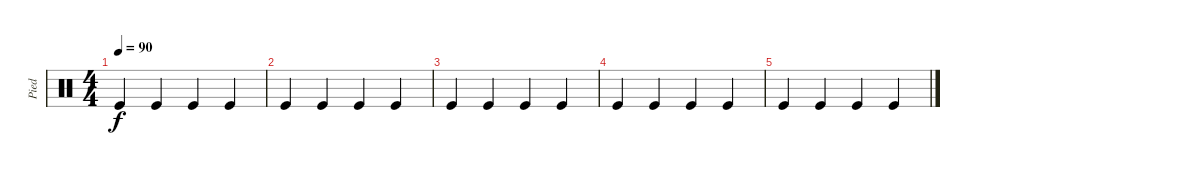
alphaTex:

\track ("Pied" "Pied") {instrument percussion}
\staff {score}
\articulation defaults
\ts (4 4)
\tempo 90
\clef neutral
\ks c "Kick (hit)".4{dy f} "Kick (hit)".4 "Kick (hit)".4 "Kick (hit)".4
|
"Kick (hit)".4 "Kick (hit)".4 "Kick (hit)".4 "Kick (hit)".4 |
"Kick (hit)".4 "Kick (hit)".4 "Kick (hit)".4 "Kick (hit)".4 |
"Kick (hit)".4 "Kick (hit)".4 "Kick (hit)".4 "Kick (hit)".4 |
"Kick (hit)".4 "Kick (hit)".4 "Kick (hit)".4 "Kick (hit)".4
